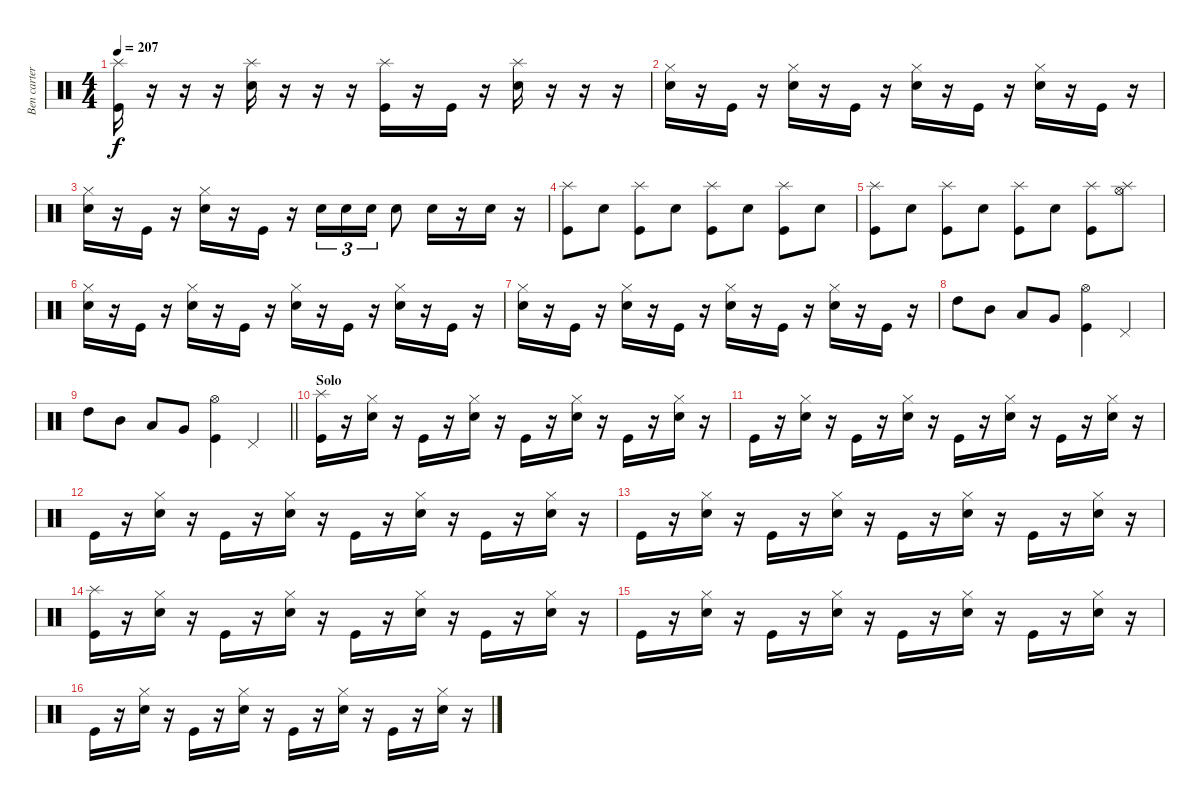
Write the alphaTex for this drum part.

\track ("Ben carter" "Ben carter") {instrument percussion}
\staff {score}
\articulation defaults
\ts (4 4)
\tempo 207
\clef neutral
\ks c
("Splash (hit)" "Kick (hit)").16{dy f} r.16 r.16 r.16 ("Splash (hit)" "Snare (hit) 2").16 r.16 r.16 r.16 ("Splash (hit)" "Kick (hit)").16 r.16 "Kick (hit)".16 r.16 ("Splash (hit)" "Snare (hit) 2").16 r.16 r.16 r.16 |
("Hi-Hat (closed)" "Electric Snare (hit)").16 r.16 "Kick (hit)".16 r.16 ("Hi-Hat (closed)" "Electric Snare (hit)").16 r.16 "Kick (hit)".16 r.16 ("Hi-Hat (closed)" "Electric Snare (hit)").16 r.16 "Kick (hit)".16 r.16 ("Hi-Hat (closed)" "Electric Snare (hit)").16 r.16 "Kick (hit)".16 r.16 |
("Hi-Hat (closed)" "Electric Snare (hit)").16 r.16 "Kick (hit)".16 r.16 ("Hi-Hat (closed)" "Electric Snare (hit)").16 r.16 "Kick (hit)".16 r.16 "Snare (hit) 2".16{tu (3 2)} "Snare (hit) 2".16{tu (3 2)} "Snare (hit) 2".16{tu (3 2)} "Snare (hit) 2".8 "Snare (hit) 2".16 r.16 "Snare (hit) 2".16 r.16 |
("Splash (hit)" "Kick (hit)").8 "Snare (hit) 2".8 ("Splash (hit)" "Kick (hit)").8 "Snare (hit) 2".8 ("Splash (hit)" "Kick (hit)").8 "Snare (hit) 2".8 ("Splash (hit)" "Kick (hit)").8 "Snare (hit) 2".8 |
("Splash (hit)" "Kick (hit)").8 "Snare (hit) 2".8 ("Splash (hit)" "Kick (hit)").8 "Snare (hit) 2".8 ("Splash (hit)" "Kick (hit)").8 "Snare (hit) 2".8 ("Splash (hit)" "Kick (hit)").8 ("Splash (hit)" "Hi-Hat (open)").8 |
("Hi-Hat (closed)" "Electric Snare (hit)").16 r.16 "Kick (hit)".16 r.16 ("Hi-Hat (closed)" "Electric Snare (hit)").16 r.16 "Kick (hit)".16 r.16 ("Hi-Hat (closed)" "Electric Snare (hit)").16 r.16 "Kick (hit)".16 r.16 ("Hi-Hat (closed)" "Electric Snare (hit)").16 r.16 "Kick (hit)".16 r.16 |
("Hi-Hat (closed)" "Electric Snare (hit)").16 r.16 "Kick (hit)".16 r.16 ("Hi-Hat (closed)" "Electric Snare (hit)").16 r.16 "Kick (hit)".16 r.16 ("Hi-Hat (closed)" "Electric Snare (hit)").16 r.16 "Kick (hit)".16 r.16 ("Hi-Hat (closed)" "Electric Snare (hit)").16 r.16 "Kick (hit)".16 r.16 |
"High Tom (hit)".8 "Mid Tom (hit)".8 "Low Tom (hit)".8 "Very Low Tom (hit)".8 ("Kick (hit)" "Hi-Hat (open)").4 "Pedal Hi-Hat (hit)".4 |
\barLineRight lightlight "High Tom (hit)".8 "Mid Tom (hit)".8 "Low Tom (hit)".8 "Very Low Tom (hit)".8
("Kick (hit)" "Hi-Hat (open)").4 "Pedal Hi-Hat (hit)".4 |
\section ("" "Solo")
("Splash (hit)" "Kick (hit)").16 r.16 ("Hi-Hat (closed)" "Electric Snare (hit)").16 r.16 "Kick (hit)".16 r.16 ("Hi-Hat (closed)" "Electric Snare (hit)").16 r.16 "Kick (hit)".16 r.16 ("Hi-Hat (closed)" "Electric Snare (hit)").16 r.16 "Kick (hit)".16 r.16 ("Hi-Hat (closed)" "Electric Snare (hit)").16 r.16 |
"Kick (hit)".16 r.16 ("Hi-Hat (closed)" "Electric Snare (hit)").16 r.16 "Kick (hit)".16 r.16 ("Hi-Hat (closed)" "Electric Snare (hit)").16 r.16 "Kick (hit)".16 r.16 ("Hi-Hat (closed)" "Electric Snare (hit)").16 r.16 "Kick (hit)".16 r.16 ("Hi-Hat (closed)" "Electric Snare (hit)").16 r.16 |
"Kick (hit)".16 r.16 ("Hi-Hat (closed)" "Electric Snare (hit)").16 r.16 "Kick (hit)".16 r.16 ("Hi-Hat (closed)" "Electric Snare (hit)").16 r.16 "Kick (hit)".16 r.16 ("Hi-Hat (closed)" "Electric Snare (hit)").16 r.16 "Kick (hit)".16 r.16 ("Hi-Hat (closed)" "Electric Snare (hit)").16 r.16 |
"Kick (hit)".16 r.16 ("Hi-Hat (closed)" "Electric Snare (hit)").16 r.16 "Kick (hit)".16 r.16 ("Hi-Hat (closed)" "Electric Snare (hit)").16 r.16 "Kick (hit)".16 r.16 ("Hi-Hat (closed)" "Electric Snare (hit)").16 r.16 "Kick (hit)".16 r.16 ("Hi-Hat (closed)" "Electric Snare (hit)").16 r.16 |
("Splash (hit)" "Kick (hit)").16 r.16 ("Hi-Hat (closed)" "Electric Snare (hit)").16 r.16 "Kick (hit)".16 r.16 ("Hi-Hat (closed)" "Electric Snare (hit)").16 r.16 "Kick (hit)".16 r.16 ("Hi-Hat (closed)" "Electric Snare (hit)").16 r.16 "Kick (hit)".16 r.16 ("Hi-Hat (closed)" "Electric Snare (hit)").16 r.16 |
"Kick (hit)".16 r.16 ("Hi-Hat (closed)" "Electric Snare (hit)").16 r.16 "Kick (hit)".16 r.16 ("Hi-Hat (closed)" "Electric Snare (hit)").16 r.16 "Kick (hit)".16 r.16 ("Hi-Hat (closed)" "Electric Snare (hit)").16 r.16 "Kick (hit)".16 r.16 ("Hi-Hat (closed)" "Electric Snare (hit)").16 r.16 |
"Kick (hit)".16 r.16 ("Hi-Hat (closed)" "Electric Snare (hit)").16 r.16 "Kick (hit)".16 r.16 ("Hi-Hat (closed)" "Electric Snare (hit)").16 r.16 "Kick (hit)".16 r.16 ("Hi-Hat (closed)" "Electric Snare (hit)").16 r.16 "Kick (hit)".16 r.16 ("Hi-Hat (closed)" "Electric Snare (hit)").16 r.16
